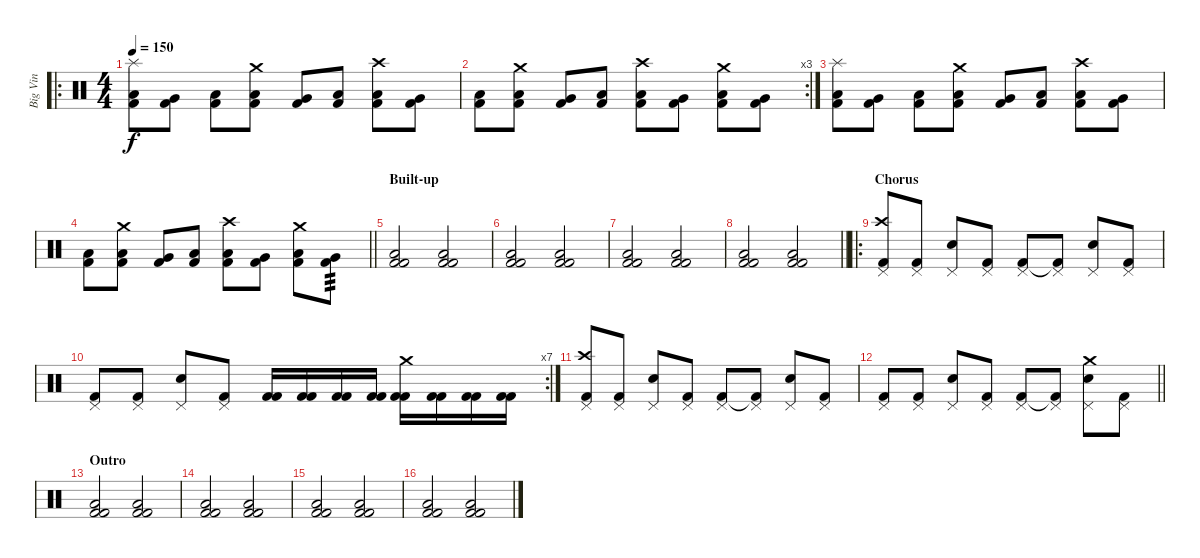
\track ("Big Vin" "Big Vin") {instrument percussion}
\staff {score}
\articulation defaults
\ro
\ts (4 4)
\tempo 150
\clef neutral
\ks c
("Splash (hit)" "Low Tom (hit)" "Kick (hit) 2").8{dy f} ("Very Low Tom (hit)" "Kick (hit) 2").8 ("Low Floor Tom (hit)" "Kick (hit) 2").8 ("Crash medium (hit)" "Low Tom (hit)" "Kick (hit) 2").8 ("Very Low Tom (hit)" "Kick (hit) 2").8 ("Low Floor Tom (hit)" "Kick (hit) 2").8 ("Crash high (hit)" "Low Tom (hit)" "Kick (hit) 2").8 ("Very Low Tom (hit)" "Kick (hit) 2").8 |
\rc 3
("Low Floor Tom (hit)" "Kick (hit) 2").8 ("Crash medium (hit)" "Low Tom (hit)" "Kick (hit) 2").8 ("Very Low Tom (hit)" "Kick (hit) 2").8 ("Low Floor Tom (hit)" "Kick (hit) 2").8 ("Crash high (hit)" "Low Tom (hit)" "Kick (hit) 2").8 ("Very Low Tom (hit)" "Kick (hit) 2").8 ("Crash medium (hit)" "Low Floor Tom (hit)" "Kick (hit) 2").8 ("Very Low Tom (hit)" "Kick (hit) 2").8 |
("Splash (hit)" "Low Tom (hit)" "Kick (hit) 2").8 ("Very Low Tom (hit)" "Kick (hit) 2").8 ("Low Floor Tom (hit)" "Kick (hit) 2").8 ("Crash medium (hit)" "Low Tom (hit)" "Kick (hit) 2").8 ("Very Low Tom (hit)" "Kick (hit) 2").8 ("Low Floor Tom (hit)" "Kick (hit) 2").8 ("Crash high (hit)" "Low Tom (hit)" "Kick (hit) 2").8 ("Very Low Tom (hit)" "Kick (hit) 2").8 |
\barLineRight lightlight
("Low Floor Tom (hit)" "Kick (hit) 2").8 ("Crash medium (hit)" "Low Tom (hit)" "Kick (hit) 2").8 ("Very Low Tom (hit)" "Kick (hit) 2").8 ("Low Floor Tom (hit)" "Kick (hit) 2").8 ("Crash high (hit)" "Low Tom (hit)" "Kick (hit) 2").8 ("Very Low Tom (hit)" "Kick (hit) 2").8 ("Crash medium (hit)" "Low Floor Tom (hit)" "Kick (hit) 2").8 ("Very Low Tom (hit)" "Kick (hit) 2").8{tp 3} |
\section ("" "Built-up")
("Low Floor Tom (hit)" "Kick (hit) 2" "Kick (hit) 2").2 ("Low Floor Tom (hit)" "Kick (hit) 2" "Kick (hit) 2").2 |
("Low Floor Tom (hit)" "Kick (hit) 2" "Kick (hit) 2").2 ("Low Floor Tom (hit)" "Kick (hit) 2" "Kick (hit) 2").2 |
("Low Floor Tom (hit)" "Kick (hit) 2" "Kick (hit) 2").2 ("Low Floor Tom (hit)" "Kick (hit) 2" "Kick (hit) 2").2 |
\barLineRight lightlight
("Low Floor Tom (hit)" "Kick (hit) 2" "Kick (hit) 2").2 ("Low Floor Tom (hit)" "Kick (hit) 2" "Kick (hit) 2").2 |
\ro
\section ("" "Chorus")
("Crash high (hit)" "Pedal Hi-Hat (hit)" "Kick (hit) 2").8 ("Pedal Hi-Hat (hit)" "Kick (hit) 2").8 ("Pedal Hi-Hat (hit)" "Electric Snare (hit)").8 ("Pedal Hi-Hat (hit)" "Kick (hit) 2").8 ("Pedal Hi-Hat (hit)" "Kick (hit) 2").8 ("Pedal Hi-Hat (hit)" "Kick (hit) 2"{t}).8 ("Pedal Hi-Hat (hit)" "Electric Snare (hit)").8 ("Pedal Hi-Hat (hit)" "Kick (hit) 2").8 |
\rc 7
("Pedal Hi-Hat (hit)" "Kick (hit) 2").8 ("Pedal Hi-Hat (hit)" "Kick (hit) 2").8 ("Pedal Hi-Hat (hit)" "Electric Snare (hit)").8 ("Pedal Hi-Hat (hit)" "Kick (hit) 2").8 ("Kick (hit) 2" "Kick (hit) 2").16 ("Kick (hit) 2" "Kick (hit) 2").16 ("Kick (hit) 2" "Kick (hit) 2").16 ("Kick (hit) 2" "Kick (hit) 2").16 ("Crash medium (hit)" "Kick (hit) 2" "Kick (hit) 2").16 ("Kick (hit) 2" "Kick (hit) 2").16 ("Kick (hit) 2" "Kick (hit) 2").16 ("Kick (hit) 2" "Kick (hit) 2").16 |
("Crash high (hit)" "Pedal Hi-Hat (hit)" "Kick (hit) 2").8 ("Pedal Hi-Hat (hit)" "Kick (hit) 2").8 ("Pedal Hi-Hat (hit)" "Electric Snare (hit)").8 ("Pedal Hi-Hat (hit)" "Kick (hit) 2").8 ("Pedal Hi-Hat (hit)" "Kick (hit) 2").8 ("Pedal Hi-Hat (hit)" "Kick (hit) 2"{t}).8 ("Pedal Hi-Hat (hit)" "Electric Snare (hit)").8 ("Pedal Hi-Hat (hit)" "Kick (hit) 2").8 |
\barLineRight lightlight
("Pedal Hi-Hat (hit)" "Kick (hit) 2").8 ("Pedal Hi-Hat (hit)" "Kick (hit) 2").8 ("Pedal Hi-Hat (hit)" "Electric Snare (hit)").8 ("Pedal Hi-Hat (hit)" "Kick (hit) 2").8 ("Pedal Hi-Hat (hit)" "Kick (hit) 2").8 ("Pedal Hi-Hat (hit)" "Kick (hit) 2"{t}).8 ("Crash medium (hit)" "Pedal Hi-Hat (hit)" "Electric Snare (hit)").8 ("Pedal Hi-Hat (hit)" "Kick (hit) 2").8 |
\section ("" "Outro")
("Low Floor Tom (hit)" "Kick (hit) 2" "Kick (hit) 2").2 ("Low Floor Tom (hit)" "Kick (hit) 2" "Kick (hit) 2").2 |
("Low Floor Tom (hit)" "Kick (hit) 2" "Kick (hit) 2").2 ("Low Floor Tom (hit)" "Kick (hit) 2" "Kick (hit) 2").2 |
("Low Floor Tom (hit)" "Kick (hit) 2" "Kick (hit) 2").2 ("Low Floor Tom (hit)" "Kick (hit) 2" "Kick (hit) 2").2 |
("Low Floor Tom (hit)" "Kick (hit) 2" "Kick (hit) 2").2 ("Low Floor Tom (hit)" "Kick (hit) 2" "Kick (hit) 2").2
